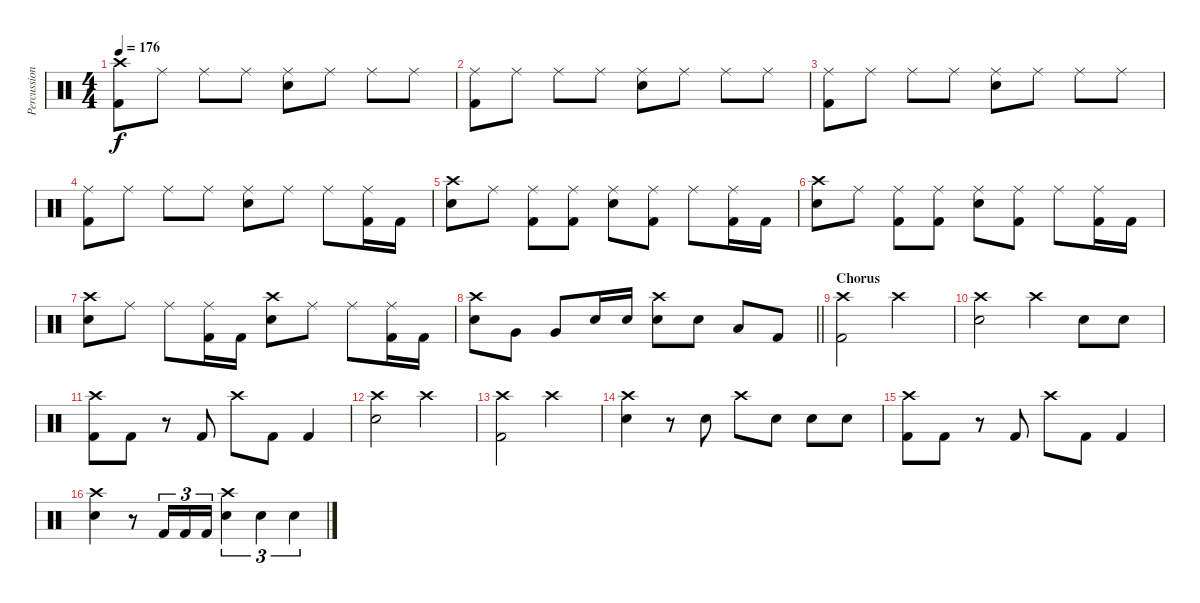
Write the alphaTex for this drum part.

\track ("Percussion" "Percussion") {instrument percussion}
\staff {score}
\articulation defaults
\ts (4 4)
\tempo 176
\clef neutral
\ks c
("Crash high (hit)" "Kick (hit) 2").8{dy f} "Ride (middle)".8 "Ride (middle)".8 "Ride (middle)".8 ("Ride (middle)" "Snare (hit) 2").8 "Ride (middle)".8 "Ride (middle)".8 "Ride (middle)".8 |
("Ride (middle)" "Kick (hit) 2").8 "Ride (middle)".8 "Ride (middle)".8 "Ride (middle)".8 ("Ride (middle)" "Snare (hit) 2").8 "Ride (middle)".8 "Ride (middle)".8 "Ride (middle)".8 |
("Ride (middle)" "Kick (hit) 2").8 "Ride (middle)".8 "Ride (middle)".8 "Ride (middle)".8 ("Ride (middle)" "Snare (hit) 2").8 "Ride (middle)".8 "Ride (middle)".8 "Ride (middle)".8 |
("Ride (middle)" "Kick (hit) 2").8 "Ride (middle)".8 "Ride (middle)".8 "Ride (middle)".8 ("Ride (middle)" "Snare (hit) 2").8 "Ride (middle)".8 "Ride (middle)".8 ("Ride (middle)" "Kick (hit) 2").16 "Kick (hit) 2".16 |
("Crash high (hit)" "Snare (hit) 2").8 "Ride (middle)".8 ("Ride (middle)" "Kick (hit) 2").8 ("Ride (middle)" "Kick (hit) 2").8 ("Ride (middle)" "Snare (hit) 2").8 ("Ride (middle)" "Kick (hit) 2").8 "Ride (middle)".8 ("Ride (middle)" "Kick (hit) 2").16 "Kick (hit) 2".16 |
("Crash high (hit)" "Snare (hit) 2").8 "Ride (middle)".8 ("Ride (middle)" "Kick (hit) 2").8 ("Ride (middle)" "Kick (hit) 2").8 ("Ride (middle)" "Snare (hit) 2").8 ("Ride (middle)" "Kick (hit) 2").8 "Ride (middle)".8 ("Ride (middle)" "Kick (hit) 2").16 "Kick (hit) 2".16 |
("Crash high (hit)" "Snare (hit) 2").8 "Ride (middle)".8 "Ride (middle)".8 ("Ride (middle)" "Kick (hit) 2").16 "Kick (hit) 2".16 ("Crash high (hit)" "Snare (hit) 2").8 "Ride (middle)".8 "Ride (middle)".8 ("Ride (middle)" "Kick (hit) 2").16 "Kick (hit) 2".16 |
\barLineRight lightlight
("Crash high (hit)" "Snare (hit) 2").8 "Very Low Tom (hit)".8 "Very Low Tom (hit)".8 "Snare (hit) 2".16 "Snare (hit) 2".16 ("Crash high (hit)" "Snare (hit) 2").8 "Snare (hit) 2".8 "Low Floor Tom (hit)".8 "Kick (hit) 2".8 |
\section ("" "Chorus")
("Crash high (hit)" "Kick (hit) 2").2 "Crash high (hit)".2 |
("Crash high (hit)" "Snare (hit) 2").2 "Crash high (hit)".4 "Snare (hit) 2".8 "Snare (hit) 2".8 |
("Crash high (hit)" "Kick (hit) 2").8 "Kick (hit) 2".8 r.8 "Kick (hit) 2".8 "Crash high (hit)".8 "Kick (hit) 2".8 "Kick (hit) 2".4 |
("Crash high (hit)" "Snare (hit) 2").2 "Crash high (hit)".2 |
("Crash high (hit)" "Kick (hit) 2").2 "Crash high (hit)".2 |
("Crash high (hit)" "Snare (hit) 2").4 r.8 "Snare (hit) 2".8 "Crash high (hit)".8 "Snare (hit) 2".8 "Snare (hit) 2".8 "Snare (hit) 2".8 |
("Crash high (hit)" "Kick (hit) 2").8 "Kick (hit) 2".8 r.8 "Kick (hit) 2".8 "Crash high (hit)".8 "Kick (hit) 2".8 "Kick (hit) 2".4 |
("Crash high (hit)" "Snare (hit) 2").4 r.8 "Kick (hit) 2".16{tu (3 2)} "Kick (hit) 2".16{tu (3 2)} "Kick (hit) 2".16{tu (3 2)} ("Crash high (hit)" "Snare (hit) 2").4{tu (3 2)} "Snare (hit) 2".4{tu (3 2)} "Snare (hit) 2".4{tu (3 2)}
